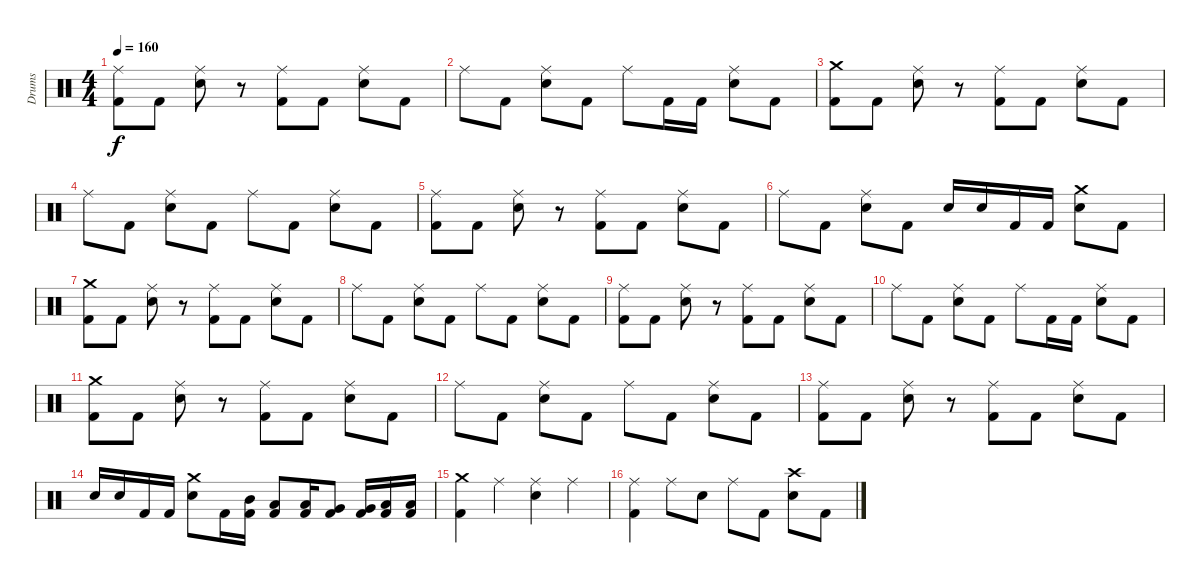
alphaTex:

\track ("Drums" "Drums") {instrument percussion}
\staff {score}
\articulation defaults
\ts (4 4)
\tempo 160
\clef neutral
\ks c
("Ride (middle)" "Kick (hit) 2").8{dy f} "Kick (hit) 2".8 ("Ride (middle)" "Electric Snare (hit)").8 r.8 ("Ride (middle)" "Kick (hit) 2").8 "Kick (hit) 2".8 ("Ride (middle)" "Electric Snare (hit)").8 "Kick (hit) 2".8 |
"Ride (middle)".8 "Kick (hit) 2".8 ("Ride (middle)" "Electric Snare (hit)").8 "Kick (hit) 2".8 "Ride (middle)".8 "Kick (hit) 2".16 "Kick (hit) 2".16 ("Ride (middle)" "Electric Snare (hit)").8 "Kick (hit) 2".8 |
("Crash medium (hit)" "Kick (hit) 2").8 "Kick (hit) 2".8 ("Ride (middle)" "Electric Snare (hit)").8 r.8 ("Ride (middle)" "Kick (hit) 2").8 "Kick (hit) 2".8 ("Ride (middle)" "Electric Snare (hit)").8 "Kick (hit) 2".8 |
"Ride (middle)".8 "Kick (hit) 2".8 ("Ride (middle)" "Electric Snare (hit)").8 "Kick (hit) 2".8 "Ride (middle)".8 "Kick (hit) 2".8 ("Ride (middle)" "Electric Snare (hit)").8 "Kick (hit) 2".8 |
("Ride (middle)" "Kick (hit) 2").8 "Kick (hit) 2".8 ("Ride (middle)" "Electric Snare (hit)").8 r.8 ("Ride (middle)" "Kick (hit) 2").8 "Kick (hit) 2".8 ("Ride (middle)" "Electric Snare (hit)").8 "Kick (hit) 2".8 |
"Ride (middle)".8 "Kick (hit) 2".8 ("Ride (middle)" "Electric Snare (hit)").8 "Kick (hit) 2".8 "Electric Snare (hit)".16 "Electric Snare (hit)".16 "Kick (hit) 2".16 "Kick (hit) 2".16 ("Crash medium (hit)" "Electric Snare (hit)").8 "Kick (hit) 2".8 |
\section ("" "")
("Crash medium (hit)" "Kick (hit) 2").8 "Kick (hit) 2".8 ("Ride (middle)" "Electric Snare (hit)").8 r.8 ("Ride (middle)" "Kick (hit) 2").8 "Kick (hit) 2".8 ("Ride (middle)" "Electric Snare (hit)").8 "Kick (hit) 2".8 |
"Ride (middle)".8 "Kick (hit) 2".8 ("Ride (middle)" "Electric Snare (hit)").8 "Kick (hit) 2".8 "Ride (middle)".8 "Kick (hit) 2".8 ("Ride (middle)" "Electric Snare (hit)").8 "Kick (hit) 2".8 |
("Ride (middle)" "Kick (hit) 2").8 "Kick (hit) 2".8 ("Ride (middle)" "Electric Snare (hit)").8 r.8 ("Ride (middle)" "Kick (hit) 2").8 "Kick (hit) 2".8 ("Ride (middle)" "Electric Snare (hit)").8 "Kick (hit) 2".8 |
"Ride (middle)".8 "Kick (hit) 2".8 ("Ride (middle)" "Electric Snare (hit)").8 "Kick (hit) 2".8 "Ride (middle)".8 "Kick (hit) 2".16 "Kick (hit) 2".16 ("Ride (middle)" "Electric Snare (hit)").8 "Kick (hit) 2".8 |
("Crash medium (hit)" "Kick (hit) 2").8 "Kick (hit) 2".8 ("Ride (middle)" "Electric Snare (hit)").8 r.8 ("Ride (middle)" "Kick (hit) 2").8 "Kick (hit) 2".8 ("Ride (middle)" "Electric Snare (hit)").8 "Kick (hit) 2".8 |
"Ride (middle)".8 "Kick (hit) 2".8 ("Ride (middle)" "Electric Snare (hit)").8 "Kick (hit) 2".8 "Ride (middle)".8 "Kick (hit) 2".8 ("Ride (middle)" "Electric Snare (hit)").8 "Kick (hit) 2".8 |
("Ride (middle)" "Kick (hit) 2").8 "Kick (hit) 2".8 ("Ride (middle)" "Electric Snare (hit)").8 r.8 ("Ride (middle)" "Kick (hit) 2").8 "Kick (hit) 2".8 ("Ride (middle)" "Electric Snare (hit)").8 "Kick (hit) 2".8 |
"Electric Snare (hit)".16 "Electric Snare (hit)".16 "Kick (hit) 2".16 "Kick (hit) 2".16 ("Crash medium (hit)" "Electric Snare (hit)").8 "Kick (hit) 2".16 ("Mid Tom (hit)" "Kick (hit) 2").16 ("Low Tom (hit)" "Kick (hit) 2").8 ("Low Tom (hit)" "Kick (hit) 2").16 ("Very Low Tom (hit)" "Kick (hit) 2").8 ("Very Low Tom (hit)" "Kick (hit) 2").16 ("Low Floor Tom (hit)" "Kick (hit) 2").16 ("Low Floor Tom (hit)" "Kick (hit) 2").16 |
\section ("" "")
("Crash medium (hit)" "Kick (hit) 2").4 "Ride (middle)".4 ("Ride (middle)" "Electric Snare (hit)").4 "Ride (middle)".4 |
("Ride (middle)" "Kick (hit) 2").4 "Ride (middle)".8 "Electric Snare (hit)".8 "Ride (middle)".8 "Kick (hit) 2".8 ("Crash high (hit)" "Electric Snare (hit)").8 "Kick (hit) 2".8
